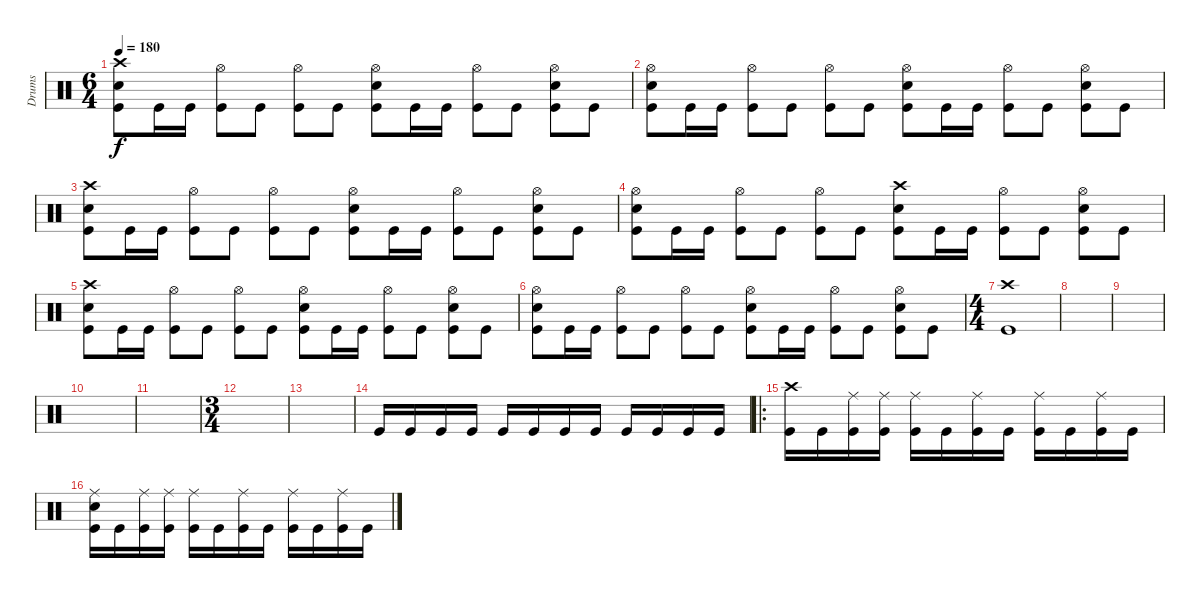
\track ("Drums" "Drums") {instrument percussion}
\staff {score}
\articulation defaults
\ts (6 4)
\tempo 180
\clef neutral
\ks c
("Crash high (hit)" "Snare (hit) 2" "Kick (hit)").8{dy f} "Kick (hit)".16 "Kick (hit)".16 ("Hi-Hat (open)" "Kick (hit)").8 "Kick (hit)".8 ("Hi-Hat (open)" "Kick (hit)").8 "Kick (hit)".8 ("Hi-Hat (open)" "Snare (hit) 2" "Kick (hit)").8 "Kick (hit)".16 "Kick (hit)".16 ("Hi-Hat (open)" "Kick (hit)").8 "Kick (hit)".8 ("Hi-Hat (open)" "Snare (hit) 2" "Kick (hit)").8 "Kick (hit)".8 |
("Hi-Hat (open)" "Snare (hit) 2" "Kick (hit)").8 "Kick (hit)".16 "Kick (hit)".16 ("Hi-Hat (open)" "Kick (hit)").8 "Kick (hit)".8 ("Hi-Hat (open)" "Kick (hit)").8 "Kick (hit)".8 ("Hi-Hat (open)" "Snare (hit) 2" "Kick (hit)").8 "Kick (hit)".16 "Kick (hit)".16 ("Hi-Hat (open)" "Kick (hit)").8 "Kick (hit)".8 ("Hi-Hat (open)" "Snare (hit) 2" "Kick (hit)").8 "Kick (hit)".8 |
("Crash high (hit)" "Snare (hit) 2" "Kick (hit)").8 "Kick (hit)".16 "Kick (hit)".16 ("Hi-Hat (open)" "Kick (hit)").8 "Kick (hit)".8 ("Hi-Hat (open)" "Kick (hit)").8 "Kick (hit)".8 ("Hi-Hat (open)" "Snare (hit) 2" "Kick (hit)").8 "Kick (hit)".16 "Kick (hit)".16 ("Hi-Hat (open)" "Kick (hit)").8 "Kick (hit)".8 ("Hi-Hat (open)" "Snare (hit) 2" "Kick (hit)").8 "Kick (hit)".8 |
("Hi-Hat (open)" "Snare (hit) 2" "Kick (hit)").8 "Kick (hit)".16 "Kick (hit)".16 ("Hi-Hat (open)" "Kick (hit)").8 "Kick (hit)".8 ("Hi-Hat (open)" "Kick (hit)").8 "Kick (hit)".8 ("Crash high (hit)" "Snare (hit) 2" "Kick (hit)").8 "Kick (hit)".16 "Kick (hit)".16 ("Hi-Hat (open)" "Kick (hit)").8 "Kick (hit)".8 ("Hi-Hat (open)" "Snare (hit) 2" "Kick (hit)").8 "Kick (hit)".8 |
("Crash high (hit)" "Snare (hit) 2" "Kick (hit)").8 "Kick (hit)".16 "Kick (hit)".16 ("Hi-Hat (open)" "Kick (hit)").8 "Kick (hit)".8 ("Hi-Hat (open)" "Kick (hit)").8 "Kick (hit)".8 ("Hi-Hat (open)" "Snare (hit) 2" "Kick (hit)").8 "Kick (hit)".16 "Kick (hit)".16 ("Hi-Hat (open)" "Kick (hit)").8 "Kick (hit)".8 ("Hi-Hat (open)" "Snare (hit) 2" "Kick (hit)").8 "Kick (hit)".8 |
("Hi-Hat (open)" "Snare (hit) 2" "Kick (hit)").8 "Kick (hit)".16 "Kick (hit)".16 ("Hi-Hat (open)" "Kick (hit)").8 "Kick (hit)".8 ("Hi-Hat (open)" "Kick (hit)").8 "Kick (hit)".8 ("Hi-Hat (open)" "Snare (hit) 2" "Kick (hit)").8 "Kick (hit)".16 "Kick (hit)".16 ("Hi-Hat (open)" "Kick (hit)").8 "Kick (hit)".8 ("Hi-Hat (open)" "Snare (hit) 2" "Kick (hit)").8 "Kick (hit)".8 |
\ts (4 4)
("Crash high (hit)" "Kick (hit)").1 |
|
|
|
|
\ts (3 4)
|
|
"Kick (hit)".16 "Kick (hit)".16 "Kick (hit)".16 "Kick (hit)".16 "Kick (hit)".16 "Kick (hit)".16 "Kick (hit)".16 "Kick (hit)".16 "Kick (hit)".16 "Kick (hit)".16 "Kick (hit)".16 "Kick (hit)".16 |
\ro
("Crash high (hit)" "Kick (hit)").16 "Kick (hit)".16 ("Ride (middle)" "Kick (hit)").16 ("Ride (middle)" "Kick (hit)").16 ("Ride (middle)" "Kick (hit)").16 "Kick (hit)".16 ("Ride (middle)" "Kick (hit)").16 "Kick (hit)".16 ("Ride (middle)" "Kick (hit)").16 "Kick (hit)".16 ("Ride (middle)" "Kick (hit)").16 "Kick (hit)".16 |
("Ride (middle)" "Snare (hit) 2" "Kick (hit)").16 "Kick (hit)".16 ("Ride (middle)" "Kick (hit)").16 ("Ride (middle)" "Kick (hit)").16 ("Ride (middle)" "Kick (hit)").16 "Kick (hit)".16 ("Ride (middle)" "Kick (hit)").16 "Kick (hit)".16 ("Ride (middle)" "Kick (hit)").16 "Kick (hit)".16 ("Ride (middle)" "Kick (hit)").16 "Kick (hit)".16
